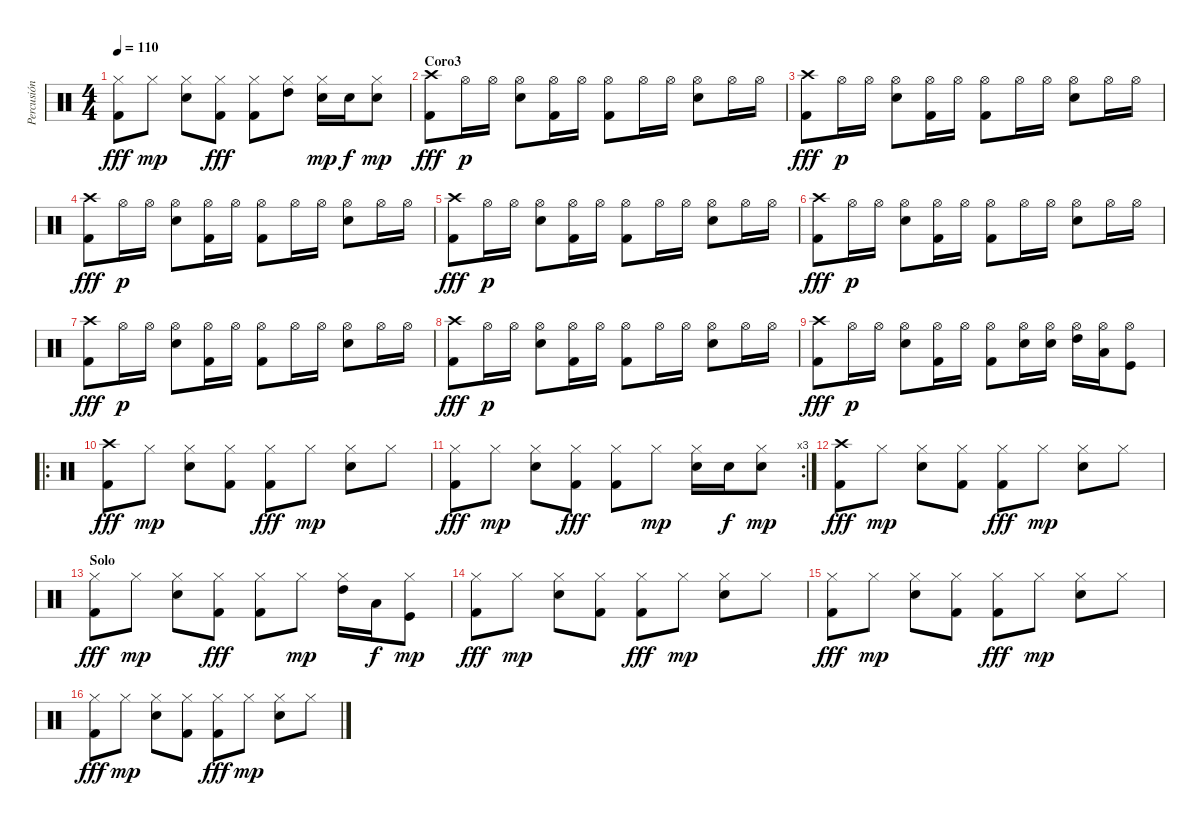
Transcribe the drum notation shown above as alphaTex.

\track ("Percusión" "Percusión") {instrument percussion}
\staff {score}
\articulation defaults
\ts (4 4)
\tempo 110
\clef neutral
\ks c
("Hi-Hat (closed)" "Kick (hit) 2").8{dy fff} "Hi-Hat (closed)".8{dy mp} ("Hi-Hat (closed)" "Snare (hit) 2").8 ("Hi-Hat (closed)" "Kick (hit) 2").8{dy fff} ("Hi-Hat (closed)" "Kick (hit) 2").8 ("Hi-Hat (closed)" "High Tom (hit)").8 ("Hi-Hat (closed)" "Snare (hit) 2").16{dy mp} "Snare (hit) 2".16{dy f} ("Hi-Hat (closed)" "Snare (hit) 2").8{dy mp} |
\section ("" "Coro3")
("Crash high (hit)" "Kick (hit) 2").8{dy fff} "Hi-Hat (open)".16{dy p} "Hi-Hat (open)".16 ("Hi-Hat (open)" "Snare (hit) 2").8 ("Hi-Hat (open)" "Kick (hit) 2").16 "Hi-Hat (open)".16 ("Hi-Hat (open)" "Kick (hit) 2").8 "Hi-Hat (open)".16 "Hi-Hat (open)".16 ("Hi-Hat (open)" "Snare (hit) 2").8 "Hi-Hat (open)".16 "Hi-Hat (open)".16 |
("Crash high (hit)" "Kick (hit) 2").8{dy fff} "Hi-Hat (open)".16{dy p} "Hi-Hat (open)".16 ("Hi-Hat (open)" "Snare (hit) 2").8 ("Hi-Hat (open)" "Kick (hit) 2").16 "Hi-Hat (open)".16 ("Hi-Hat (open)" "Kick (hit) 2").8 "Hi-Hat (open)".16 "Hi-Hat (open)".16 ("Hi-Hat (open)" "Snare (hit) 2").8 "Hi-Hat (open)".16 "Hi-Hat (open)".16 |
("Crash high (hit)" "Kick (hit) 2").8{dy fff} "Hi-Hat (open)".16{dy p} "Hi-Hat (open)".16 ("Hi-Hat (open)" "Snare (hit) 2").8 ("Hi-Hat (open)" "Kick (hit) 2").16 "Hi-Hat (open)".16 ("Hi-Hat (open)" "Kick (hit) 2").8 "Hi-Hat (open)".16 "Hi-Hat (open)".16 ("Hi-Hat (open)" "Snare (hit) 2").8 "Hi-Hat (open)".16 "Hi-Hat (open)".16 |
("Crash high (hit)" "Kick (hit) 2").8{dy fff} "Hi-Hat (open)".16{dy p} "Hi-Hat (open)".16 ("Hi-Hat (open)" "Snare (hit) 2").8 ("Hi-Hat (open)" "Kick (hit) 2").16 "Hi-Hat (open)".16 ("Hi-Hat (open)" "Kick (hit) 2").8 "Hi-Hat (open)".16 "Hi-Hat (open)".16 ("Hi-Hat (open)" "Snare (hit) 2").8 "Hi-Hat (open)".16 "Hi-Hat (open)".16 |
("Crash high (hit)" "Kick (hit) 2").8{dy fff} "Hi-Hat (open)".16{dy p} "Hi-Hat (open)".16 ("Hi-Hat (open)" "Snare (hit) 2").8 ("Hi-Hat (open)" "Kick (hit) 2").16 "Hi-Hat (open)".16 ("Hi-Hat (open)" "Kick (hit) 2").8 "Hi-Hat (open)".16 "Hi-Hat (open)".16 ("Hi-Hat (open)" "Snare (hit) 2").8 "Hi-Hat (open)".16 "Hi-Hat (open)".16 |
("Crash high (hit)" "Kick (hit) 2").8{dy fff} "Hi-Hat (open)".16{dy p} "Hi-Hat (open)".16 ("Hi-Hat (open)" "Snare (hit) 2").8 ("Hi-Hat (open)" "Kick (hit) 2").16 "Hi-Hat (open)".16 ("Hi-Hat (open)" "Kick (hit) 2").8 "Hi-Hat (open)".16 "Hi-Hat (open)".16 ("Hi-Hat (open)" "Snare (hit) 2").8 "Hi-Hat (open)".16 "Hi-Hat (open)".16 |
("Crash high (hit)" "Kick (hit) 2").8{dy fff} "Hi-Hat (open)".16{dy p} "Hi-Hat (open)".16 ("Hi-Hat (open)" "Snare (hit) 2").8 ("Hi-Hat (open)" "Kick (hit) 2").16 "Hi-Hat (open)".16 ("Hi-Hat (open)" "Kick (hit) 2").8 "Hi-Hat (open)".16 "Hi-Hat (open)".16 ("Hi-Hat (open)" "Snare (hit) 2").8 "Hi-Hat (open)".16 "Hi-Hat (open)".16 |
("Crash high (hit)" "Kick (hit) 2").8{dy fff} "Hi-Hat (open)".16{dy p} "Hi-Hat (open)".16 ("Hi-Hat (open)" "Snare (hit) 2").8 ("Hi-Hat (open)" "Kick (hit) 2").16 "Hi-Hat (open)".16 ("Hi-Hat (open)" "Kick (hit) 2").8 ("Hi-Hat (open)" "Snare (hit) 2").16 ("Hi-Hat (open)" "Snare (hit) 2").16 ("Hi-Hat (open)" "High Tom (hit)").16 ("Hi-Hat (open)" "Low Tom (hit)").16 ("Hi-Hat (open)" "Kick (hit)").8 |
\ro
("Crash high (hit)" "Kick (hit) 2").8{dy fff} "Hi-Hat (closed)".8{dy mp} ("Hi-Hat (closed)" "Snare (hit) 2").8 ("Hi-Hat (closed)" "Kick (hit) 2").8 ("Hi-Hat (closed)" "Kick (hit) 2").8{dy fff} "Hi-Hat (closed)".8{dy mp} ("Hi-Hat (closed)" "Snare (hit) 2").8 "Hi-Hat (closed)".8 |
\rc 3
("Hi-Hat (closed)" "Kick (hit) 2").8{dy fff} "Hi-Hat (closed)".8{dy mp} ("Hi-Hat (closed)" "Snare (hit) 2").8 ("Hi-Hat (closed)" "Kick (hit) 2").8{dy fff} ("Hi-Hat (closed)" "Kick (hit) 2").8 "Hi-Hat (closed)".8{dy mp} ("Hi-Hat (closed)" "Snare (hit) 2").16 "Snare (hit) 2".16{dy f} ("Hi-Hat (closed)" "Snare (hit) 2").8{dy mp} |
("Crash high (hit)" "Kick (hit) 2").8{dy fff} "Hi-Hat (closed)".8{dy mp} ("Hi-Hat (closed)" "Snare (hit) 2").8 ("Hi-Hat (closed)" "Kick (hit) 2").8 ("Hi-Hat (closed)" "Kick (hit) 2").8{dy fff} "Hi-Hat (closed)".8{dy mp} ("Hi-Hat (closed)" "Snare (hit) 2").8 "Hi-Hat (closed)".8 |
\section ("" "Solo")
("Hi-Hat (closed)" "Kick (hit) 2").8{dy fff} "Hi-Hat (closed)".8{dy mp} ("Hi-Hat (closed)" "Snare (hit) 2").8 ("Hi-Hat (closed)" "Kick (hit) 2").8{dy fff} ("Hi-Hat (closed)" "Kick (hit) 2").8 "Hi-Hat (closed)".8{dy mp} ("Hi-Hat (closed)" "High Tom (hit)").16 "Low Tom (hit)".16{dy f} ("Hi-Hat (closed)" "Kick (hit)").8{dy mp} |
("Hi-Hat (closed)" "Kick (hit) 2").8{dy fff} "Hi-Hat (closed)".8{dy mp} ("Hi-Hat (closed)" "Snare (hit) 2").8 ("Hi-Hat (closed)" "Kick (hit) 2").8 ("Hi-Hat (closed)" "Kick (hit) 2").8{dy fff} "Hi-Hat (closed)".8{dy mp} ("Hi-Hat (closed)" "Snare (hit) 2").8 "Hi-Hat (closed)".8 |
("Hi-Hat (closed)" "Kick (hit) 2").8{dy fff} "Hi-Hat (closed)".8{dy mp} ("Hi-Hat (closed)" "Snare (hit) 2").8 ("Hi-Hat (closed)" "Kick (hit) 2").8 ("Hi-Hat (closed)" "Kick (hit) 2").8{dy fff} "Hi-Hat (closed)".8{dy mp} ("Hi-Hat (closed)" "Snare (hit) 2").8 "Hi-Hat (closed)".8 |
("Hi-Hat (closed)" "Kick (hit) 2").8{dy fff} "Hi-Hat (closed)".8{dy mp} ("Hi-Hat (closed)" "Snare (hit) 2").8 ("Hi-Hat (closed)" "Kick (hit) 2").8 ("Hi-Hat (closed)" "Kick (hit) 2").8{dy fff} "Hi-Hat (closed)".8{dy mp} ("Hi-Hat (closed)" "Snare (hit) 2").8 "Hi-Hat (closed)".8
